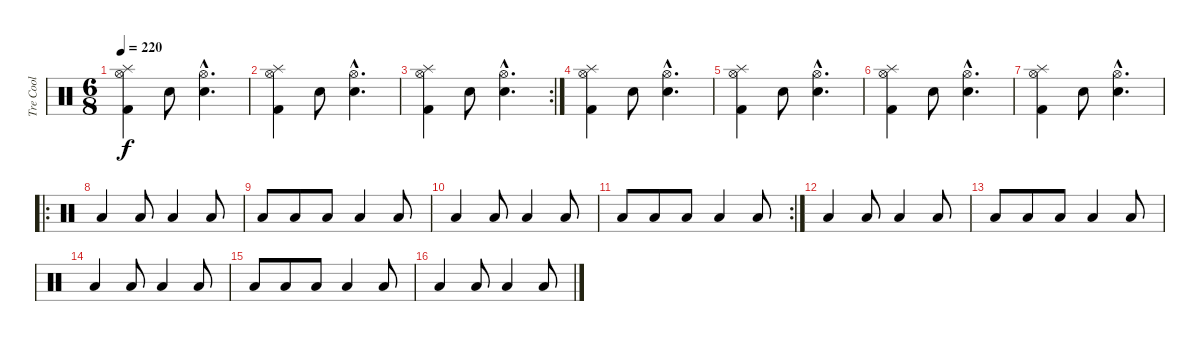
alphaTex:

\track ("Tre Cool" "Tre Cool") {instrument percussion}
\staff {score}
\articulation defaults
\ts (6 8)
\tempo 220
\clef neutral
\ks c
("Hi-Hat (open)" "Splash (hit)" "Kick (hit) 2").4{dy f} "Snare (hit) 2".8 ("Electric Snare (hit)"{hac} "Hi-Hat (open)"{hac}).4{d} |
("Hi-Hat (open)" "Splash (hit)" "Kick (hit) 2").4 "Snare (hit) 2".8 ("Electric Snare (hit)"{hac} "Hi-Hat (open)"{hac}).4{d} |
\rc 2
("Hi-Hat (open)" "Splash (hit)" "Kick (hit) 2").4 "Snare (hit) 2".8 ("Electric Snare (hit)"{hac} "Hi-Hat (open)"{hac}).4{d} |
("Hi-Hat (open)" "Splash (hit)" "Kick (hit) 2").4 "Snare (hit) 2".8 ("Electric Snare (hit)"{hac} "Hi-Hat (open)"{hac}).4{d} |
("Hi-Hat (open)" "Splash (hit)" "Kick (hit) 2").4 "Snare (hit) 2".8 ("Electric Snare (hit)"{hac} "Hi-Hat (open)"{hac}).4{d} |
("Hi-Hat (open)" "Splash (hit)" "Kick (hit) 2").4 "Snare (hit) 2".8 ("Electric Snare (hit)"{hac} "Hi-Hat (open)"{hac}).4{d} |
("Hi-Hat (open)" "Splash (hit)" "Kick (hit) 2").4 "Snare (hit) 2".8 ("Electric Snare (hit)"{hac} "Hi-Hat (open)"{hac}).4{d} |
\ro "Low Floor Tom (hit)".4 "Low Floor Tom (hit)".8 "Low Tom (hit)".4 "Low Tom (hit)".8
|
"Low Floor Tom (hit)".8 "Low Floor Tom (hit)".8 "Low Floor Tom (hit)".8 "Low Tom (hit)".4 "Low Tom (hit)".8 |
"Low Floor Tom (hit)".4 "Low Floor Tom (hit)".8 "Low Tom (hit)".4 "Low Tom (hit)".8 |
\rc 2 "Low Floor Tom (hit)".8 "Low Floor Tom (hit)".8 "Low Floor Tom (hit)".8 "Low Tom (hit)".4 "Low Tom (hit)".8
|
"Low Floor Tom (hit)".4 "Low Floor Tom (hit)".8 "Low Tom (hit)".4 "Low Tom (hit)".8 |
"Low Floor Tom (hit)".8 "Low Floor Tom (hit)".8 "Low Floor Tom (hit)".8 "Low Tom (hit)".4 "Low Tom (hit)".8 |
"Low Floor Tom (hit)".4 "Low Floor Tom (hit)".8 "Low Tom (hit)".4 "Low Tom (hit)".8 |
"Low Floor Tom (hit)".8 "Low Floor Tom (hit)".8 "Low Floor Tom (hit)".8 "Low Tom (hit)".4 "Low Tom (hit)".8 |
"Low Floor Tom (hit)".4 "Low Floor Tom (hit)".8 "Low Tom (hit)".4 "Low Tom (hit)".8
